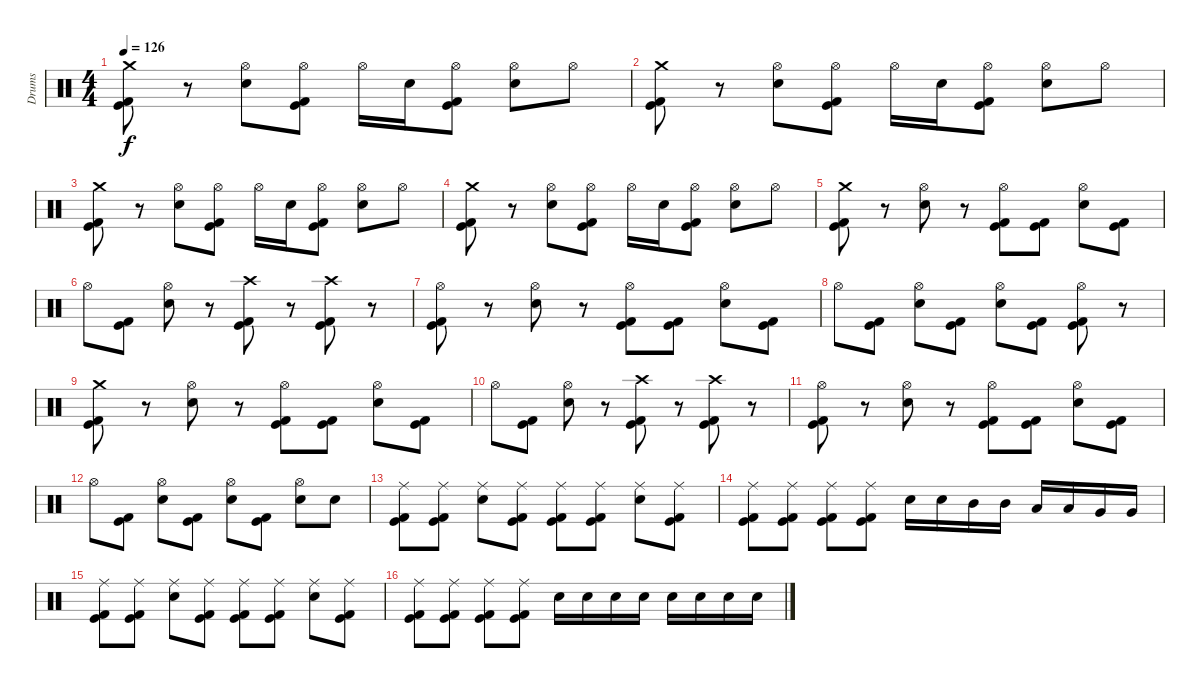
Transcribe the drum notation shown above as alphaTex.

\track ("Drums" "Drums") {instrument percussion}
\staff {score}
\articulation defaults
\ts (4 4)
\tempo 126
\clef neutral
\ks c
("Crash medium (hit)" "Kick (hit) 2" "Kick (hit)").8{dy f} r.8 ("Hi-Hat (open)" "Snare (hit) 2").8 ("Hi-Hat (open)" "Kick (hit) 2" "Kick (hit)").8 "Hi-Hat (open)".16 "Snare (hit) 2".16 ("Hi-Hat (open)" "Kick (hit) 2" "Kick (hit)").8 ("Hi-Hat (open)" "Snare (hit) 2").8 "Hi-Hat (open)".8 |
("Crash medium (hit)" "Kick (hit) 2" "Kick (hit)").8 r.8 ("Hi-Hat (open)" "Snare (hit) 2").8 ("Hi-Hat (open)" "Kick (hit) 2" "Kick (hit)").8 "Hi-Hat (open)".16 "Snare (hit) 2".16 ("Hi-Hat (open)" "Kick (hit) 2" "Kick (hit)").8 ("Hi-Hat (open)" "Snare (hit) 2").8 "Hi-Hat (open)".8 |
("Crash medium (hit)" "Kick (hit) 2" "Kick (hit)").8 r.8 ("Hi-Hat (open)" "Snare (hit) 2").8 ("Hi-Hat (open)" "Kick (hit) 2" "Kick (hit)").8 "Hi-Hat (open)".16 "Snare (hit) 2".16 ("Hi-Hat (open)" "Kick (hit) 2" "Kick (hit)").8 ("Hi-Hat (open)" "Snare (hit) 2").8 "Hi-Hat (open)".8 |
("Crash medium (hit)" "Kick (hit) 2" "Kick (hit)").8 r.8 ("Hi-Hat (open)" "Snare (hit) 2").8 ("Hi-Hat (open)" "Kick (hit) 2" "Kick (hit)").8 "Hi-Hat (open)".16 "Snare (hit) 2".16 ("Hi-Hat (open)" "Kick (hit) 2" "Kick (hit)").8 ("Hi-Hat (open)" "Snare (hit) 2").8 "Hi-Hat (open)".8 |
("Crash medium (hit)" "Kick (hit) 2" "Kick (hit)").8 r.8 ("Hi-Hat (open)" "Snare (hit) 2").8 r.8 ("Hi-Hat (open)" "Kick (hit) 2" "Kick (hit)").8 ("Kick (hit) 2" "Kick (hit)").8 ("Hi-Hat (open)" "Snare (hit) 2").8 ("Kick (hit) 2" "Kick (hit)").8 |
"Hi-Hat (open)".8 ("Kick (hit) 2" "Kick (hit)").8 ("Hi-Hat (open)" "Snare (hit) 2").8 r.8 ("Crash high (hit)" "Kick (hit) 2" "Kick (hit)").8 r.8 ("Crash high (hit)" "Kick (hit) 2" "Kick (hit)").8 r.8 |
("Hi-Hat (open)" "Kick (hit) 2" "Kick (hit)").8 r.8 ("Hi-Hat (open)" "Snare (hit) 2").8 r.8 ("Hi-Hat (open)" "Kick (hit) 2" "Kick (hit)").8 ("Kick (hit) 2" "Kick (hit)").8 ("Hi-Hat (open)" "Snare (hit) 2").8 ("Kick (hit) 2" "Kick (hit)").8 |
"Hi-Hat (open)".8 ("Kick (hit) 2" "Kick (hit)").8 ("Hi-Hat (open)" "Snare (hit) 2").8 ("Kick (hit) 2" "Kick (hit)").8 ("Hi-Hat (open)" "Snare (hit) 2").8 ("Kick (hit) 2" "Kick (hit)").8 ("Hi-Hat (open)" "Kick (hit) 2" "Kick (hit)").8 r.8 |
("Crash medium (hit)" "Kick (hit) 2" "Kick (hit)").8 r.8 ("Hi-Hat (open)" "Snare (hit) 2").8 r.8 ("Hi-Hat (open)" "Kick (hit) 2" "Kick (hit)").8 ("Kick (hit) 2" "Kick (hit)").8 ("Hi-Hat (open)" "Snare (hit) 2").8 ("Kick (hit) 2" "Kick (hit)").8 |
"Hi-Hat (open)".8 ("Kick (hit) 2" "Kick (hit)").8 ("Hi-Hat (open)" "Snare (hit) 2").8 r.8 ("Crash high (hit)" "Kick (hit) 2" "Kick (hit)").8 r.8 ("Crash high (hit)" "Kick (hit) 2" "Kick (hit)").8 r.8 |
("Hi-Hat (open)" "Kick (hit) 2" "Kick (hit)").8 r.8 ("Hi-Hat (open)" "Snare (hit) 2").8 r.8 ("Hi-Hat (open)" "Kick (hit) 2" "Kick (hit)").8 ("Kick (hit) 2" "Kick (hit)").8 ("Hi-Hat (open)" "Snare (hit) 2").8 ("Kick (hit) 2" "Kick (hit)").8 |
"Hi-Hat (open)".8 ("Kick (hit) 2" "Kick (hit)").8 ("Hi-Hat (open)" "Snare (hit) 2").8 ("Kick (hit) 2" "Kick (hit)").8 ("Hi-Hat (open)" "Snare (hit) 2").8 ("Kick (hit) 2" "Kick (hit)").8 ("Hi-Hat (open)" "Snare (hit) 2").8 "Snare (hit) 2".8 |
("Ride (middle)" "Kick (hit) 2" "Kick (hit)").8 ("Ride (middle)" "Kick (hit) 2" "Kick (hit)").8 ("Ride (middle)" "Snare (hit) 2").8 ("Ride (middle)" "Kick (hit) 2" "Kick (hit)").8 ("Ride (middle)" "Kick (hit) 2" "Kick (hit)").8 ("Ride (middle)" "Kick (hit) 2" "Kick (hit)").8 ("Ride (middle)" "Snare (hit) 2").8 ("Ride (middle)" "Kick (hit) 2" "Kick (hit)").8 |
("Ride (middle)" "Kick (hit) 2" "Kick (hit)").8 ("Ride (middle)" "Kick (hit) 2" "Kick (hit)").8 ("Ride (middle)" "Kick (hit) 2" "Kick (hit)").8 ("Ride (middle)" "Kick (hit) 2" "Kick (hit)").8 "Snare (hit) 2".16 "Snare (hit) 2".16 "Mid Tom (hit)".16 "Mid Tom (hit)".16 "Low Tom (hit)".16 "Low Tom (hit)".16 "Very Low Tom (hit)".16 "Very Low Tom (hit)".16 |
("Ride (middle)" "Kick (hit) 2" "Kick (hit)").8 ("Ride (middle)" "Kick (hit) 2" "Kick (hit)").8 ("Ride (middle)" "Snare (hit) 2").8 ("Ride (middle)" "Kick (hit) 2" "Kick (hit)").8 ("Ride (middle)" "Kick (hit) 2" "Kick (hit)").8 ("Ride (middle)" "Kick (hit) 2" "Kick (hit)").8 ("Ride (middle)" "Snare (hit) 2").8 ("Ride (middle)" "Kick (hit) 2" "Kick (hit)").8 |
("Ride (middle)" "Kick (hit) 2" "Kick (hit)").8 ("Ride (middle)" "Kick (hit) 2" "Kick (hit)").8 ("Ride (middle)" "Kick (hit) 2" "Kick (hit)").8 ("Ride (middle)" "Kick (hit) 2" "Kick (hit)").8 "Snare (hit) 2".16 "Snare (hit) 2".16 "Snare (hit) 2".16 "Snare (hit) 2".16 "Snare (hit) 2".16 "Snare (hit) 2".16 "Snare (hit) 2".16 "Snare (hit) 2".16
